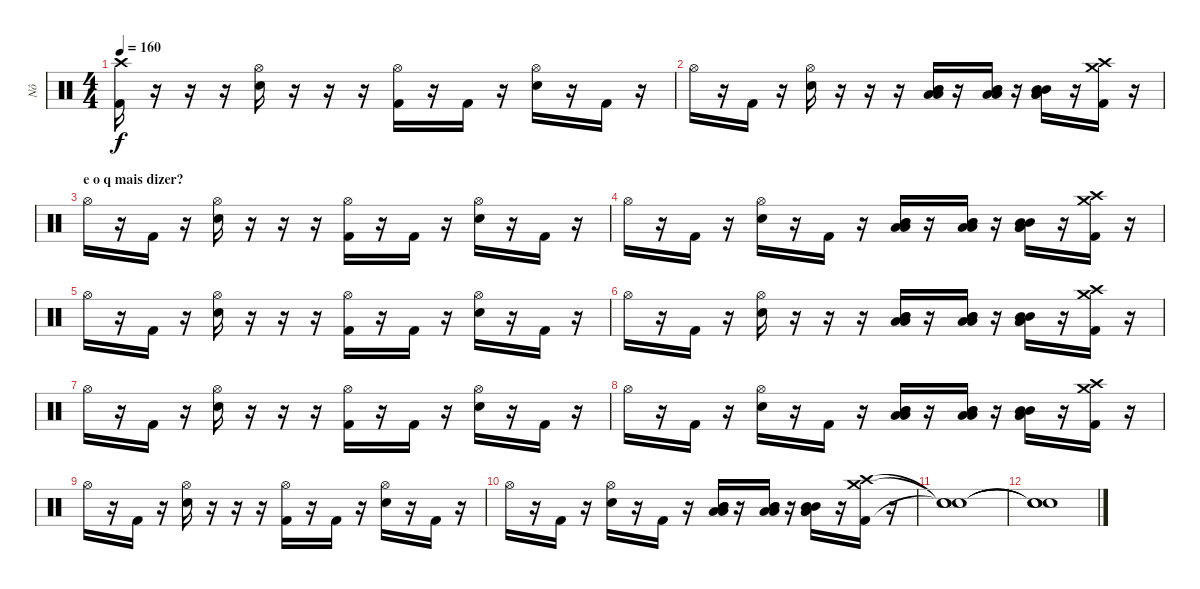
\track ("Nô" "Nô") {instrument percussion}
\staff {score}
\articulation defaults
\ts (4 4)
\tempo 160
\clef neutral
\ks c
("Crash high (hit)" "Kick (hit) 2").16{dy f} r.16 r.16 r.16 ("Hi-Hat (open)" "Electric Snare (hit)").16 r.16 r.16 r.16 ("Hi-Hat (open)" "Kick (hit) 2").16 r.16 "Kick (hit) 2".16 r.16 ("Hi-Hat (open)" "Electric Snare (hit)").16 r.16 "Kick (hit) 2".16 r.16 |
"Hi-Hat (open)".16 r.16 "Kick (hit) 2".16 r.16 ("Hi-Hat (open)" "Electric Snare (hit)").16 r.16 r.16 r.16 ("Mid Tom (hit)" "Mid Tom (hit)" "Low Tom (hit)" "Low Tom (hit)").16 r.16 ("Mid Tom (hit)" "Mid Tom (hit)" "Low Tom (hit)" "Low Tom (hit)").16 r.16 ("Mid Tom (hit)" "Mid Tom (hit)" "Low Tom (hit)" "Low Tom (hit)").16 r.16 ("Crash high (hit)" "Crash medium (hit)" "Kick (hit) 2").16 r.16 |
\section ("" "e o q mais dizer?")
"Hi-Hat (open)".16 r.16 "Kick (hit) 2".16 r.16 ("Hi-Hat (open)" "Electric Snare (hit)").16 r.16 r.16 r.16 ("Hi-Hat (open)" "Kick (hit) 2").16 r.16 "Kick (hit) 2".16 r.16 ("Hi-Hat (open)" "Electric Snare (hit)").16 r.16 "Kick (hit) 2".16 r.16 |
"Hi-Hat (open)".16 r.16 "Kick (hit) 2".16 r.16 ("Hi-Hat (open)" "Electric Snare (hit)").16 r.16 "Kick (hit) 2".16 r.16 ("Mid Tom (hit)" "Mid Tom (hit)" "Low Tom (hit)" "Low Tom (hit)").16 r.16 ("Mid Tom (hit)" "Mid Tom (hit)" "Low Tom (hit)" "Low Tom (hit)").16 r.16 ("Mid Tom (hit)" "Mid Tom (hit)" "Low Tom (hit)" "Low Tom (hit)").16 r.16 ("Crash high (hit)" "Crash medium (hit)" "Kick (hit) 2").16 r.16 |
"Hi-Hat (open)".16 r.16 "Kick (hit) 2".16 r.16 ("Hi-Hat (open)" "Electric Snare (hit)").16 r.16 r.16 r.16 ("Hi-Hat (open)" "Kick (hit) 2").16 r.16 "Kick (hit) 2".16 r.16 ("Hi-Hat (open)" "Electric Snare (hit)").16 r.16 "Kick (hit) 2".16 r.16 |
"Hi-Hat (open)".16 r.16 "Kick (hit) 2".16 r.16 ("Hi-Hat (open)" "Electric Snare (hit)").16 r.16 r.16 r.16 ("Mid Tom (hit)" "Mid Tom (hit)" "Low Tom (hit)" "Low Tom (hit)").16 r.16 ("Mid Tom (hit)" "Mid Tom (hit)" "Low Tom (hit)" "Low Tom (hit)").16 r.16 ("Mid Tom (hit)" "Mid Tom (hit)" "Low Tom (hit)" "Low Tom (hit)").16 r.16 ("Crash high (hit)" "Crash medium (hit)" "Kick (hit) 2").16 r.16 |
"Hi-Hat (open)".16 r.16 "Kick (hit) 2".16 r.16 ("Hi-Hat (open)" "Electric Snare (hit)").16 r.16 r.16 r.16 ("Hi-Hat (open)" "Kick (hit) 2").16 r.16 "Kick (hit) 2".16 r.16 ("Hi-Hat (open)" "Electric Snare (hit)").16 r.16 "Kick (hit) 2".16 r.16 |
"Hi-Hat (open)".16 r.16 "Kick (hit) 2".16 r.16 ("Hi-Hat (open)" "Electric Snare (hit)").16 r.16 "Kick (hit) 2".16 r.16 ("Mid Tom (hit)" "Mid Tom (hit)" "Low Tom (hit)" "Low Tom (hit)").16 r.16 ("Mid Tom (hit)" "Mid Tom (hit)" "Low Tom (hit)" "Low Tom (hit)").16 r.16 ("Mid Tom (hit)" "Mid Tom (hit)" "Low Tom (hit)" "Low Tom (hit)").16 r.16 ("Crash high (hit)" "Crash medium (hit)" "Kick (hit) 2").16 r.16 |
"Hi-Hat (open)".16 r.16 "Kick (hit) 2".16 r.16 ("Hi-Hat (open)" "Electric Snare (hit)").16 r.16 r.16 r.16 ("Hi-Hat (open)" "Kick (hit) 2").16 r.16 "Kick (hit) 2".16 r.16 ("Hi-Hat (open)" "Electric Snare (hit)").16 r.16 "Kick (hit) 2".16 r.16 |
"Hi-Hat (open)".16 r.16 "Kick (hit) 2".16 r.16 ("Hi-Hat (open)" "Electric Snare (hit)").16 r.16 "Kick (hit) 2".16 r.16 ("Mid Tom (hit)" "Mid Tom (hit)" "Low Tom (hit)" "Low Tom (hit)").16 r.16 ("Mid Tom (hit)" "Mid Tom (hit)" "Low Tom (hit)" "Low Tom (hit)").16 r.16 ("Mid Tom (hit)" "Mid Tom (hit)" "Low Tom (hit)" "Low Tom (hit)").16 r.16 ("Crash high (hit)" "Crash medium (hit)" "Kick (hit) 2").16 r.16 |
("Snare (hit)"{t} "Snare (hit)"{t} "Snare (hit)"{t}).1 |
("Snare (hit)"{t} "Snare (hit)"{t} "Snare (hit)"{t}).1
